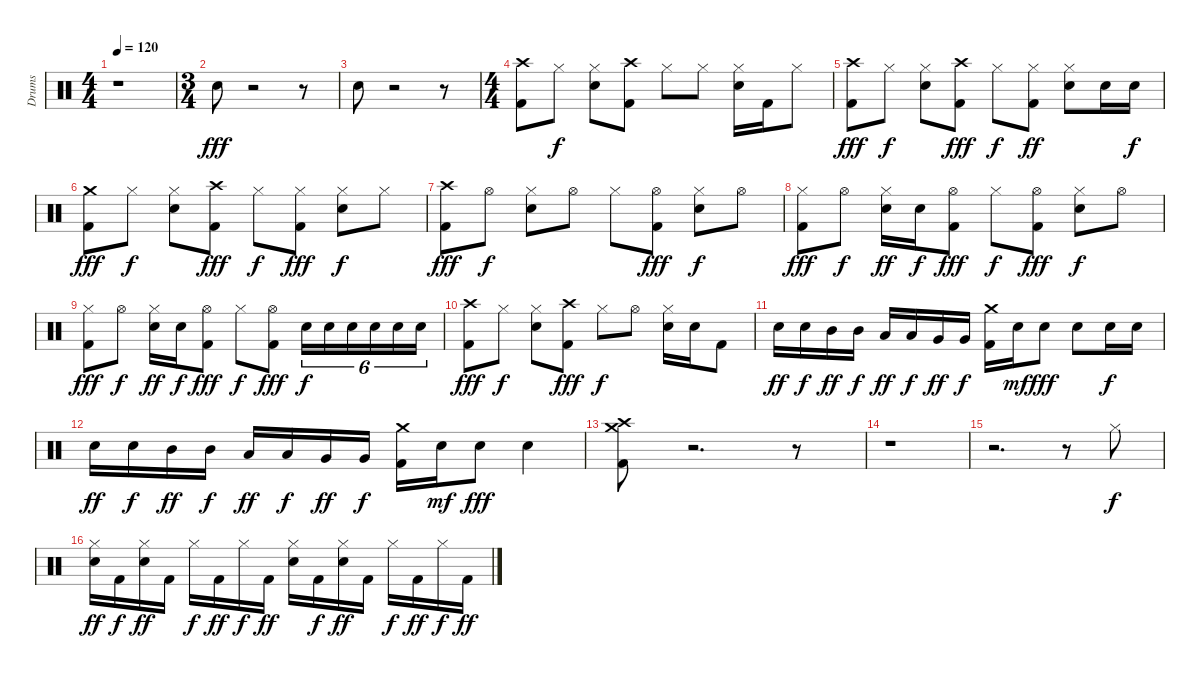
\track ("Drums" "Drums") {instrument percussion}
\staff {score}
\articulation defaults
\ts (4 4)
\tempo 120
\clef neutral
\ks c
r.1{dy fff} |
\ts (3 4)
"Snare (hit) 2".8 r.2 r.8 |
"Snare (hit) 2".8 r.2 r.8 |
\ts (4 4)
("Kick (hit) 2" "Crash high (hit)").8 "Hi-Hat (closed)".8{dy f} ("Snare (hit) 2" "Hi-Hat (closed)").8 ("Kick (hit) 2" "Crash high (hit)").8 "Hi-Hat (closed)".8 "Hi-Hat (closed)".8 ("Snare (hit) 2" "Hi-Hat (closed)").16 "Kick (hit) 2".16 "Hi-Hat (closed)".8 |
("Kick (hit) 2" "Crash high (hit)").8{dy fff} "Hi-Hat (closed)".8{dy f} ("Snare (hit) 2" "Hi-Hat (closed)").8 ("Kick (hit) 2" "Crash high (hit)").8{dy fff} "Hi-Hat (closed)".8{dy f} ("Kick (hit) 2" "Hi-Hat (closed)").8{dy ff} ("Snare (hit) 2" "Hi-Hat (closed)").8 "Snare (hit) 2".16 "Snare (hit) 2".16{dy f} |
("Kick (hit) 2" "Crash medium (hit)").8{dy fff} "Hi-Hat (closed)".8{dy f} ("Snare (hit) 2" "Hi-Hat (closed)").8 ("Kick (hit) 2" "Crash high (hit)").8{dy fff} "Hi-Hat (closed)".8{dy f} ("Kick (hit) 2" "Hi-Hat (closed)").8{dy fff} ("Snare (hit) 2" "Hi-Hat (closed)").8{dy f} "Hi-Hat (closed)".8 |
("Kick (hit) 2" "Crash high (hit)").8{dy fff} "Hi-Hat (open)".8{dy f} ("Snare (hit) 2" "Hi-Hat (closed)").8 "Hi-Hat (open)".8 "Hi-Hat (closed)".8 ("Kick (hit) 2" "Hi-Hat (open)").8{dy fff} ("Snare (hit) 2" "Hi-Hat (closed)").8{dy f} "Hi-Hat (open)".8 |
("Kick (hit) 2" "Hi-Hat (closed)").8{dy fff} "Hi-Hat (open)".8{dy f} ("Snare (hit) 2" "Hi-Hat (closed)").16{dy ff} "Snare (hit) 2".16{dy f} ("Kick (hit) 2" "Hi-Hat (open)").8{dy fff} "Hi-Hat (closed)".8{dy f} ("Kick (hit) 2" "Hi-Hat (open)").8{dy fff} ("Snare (hit) 2" "Hi-Hat (closed)").8{dy f} "Hi-Hat (open)".8 |
("Kick (hit) 2" "Hi-Hat (closed)").8{dy fff} "Hi-Hat (open)".8{dy f} ("Snare (hit) 2" "Hi-Hat (closed)").16{dy ff} "Snare (hit) 2".16{dy f} ("Kick (hit) 2" "Hi-Hat (open)").8{dy fff} "Hi-Hat (closed)".8{dy f} ("Kick (hit) 2" "Hi-Hat (open)").8{dy fff} "Snare (hit) 2".16{tu (6 4) dy f} "Snare (hit) 2".16{tu (6 4)} "Snare (hit) 2".16{tu (6 4)} "Snare (hit) 2".16{tu (6 4)} "Snare (hit) 2".16{tu (6 4)} "Snare (hit) 2".16{tu (6 4)} |
("Kick (hit) 2" "Crash high (hit)").8{dy fff} "Hi-Hat (closed)".8{dy f} ("Snare (hit) 2" "Hi-Hat (closed)").8 ("Kick (hit) 2" "Crash high (hit)").8{dy fff} "Hi-Hat (closed)".8{dy f} "Hi-Hat (open)".8 ("Snare (hit) 2" "Hi-Hat (closed)").16 "Snare (hit) 2".16 "Kick (hit) 2".8 |
"Snare (hit) 2".16{dy ff} "Snare (hit) 2".16{dy f} "Mid Tom (hit)".16{dy ff} "Mid Tom (hit)".16{dy f} "Low Tom (hit)".16{dy ff} "Low Tom (hit)".16{dy f} "Very Low Tom (hit)".16{dy ff} "Very Low Tom (hit)".16{dy f} ("Kick (hit) 2" "Crash medium (hit)").16 "Snare (hit) 2".16{dy mf} "Snare (hit) 2".8{dy fff} "Snare (hit) 2".8 "Snare (hit) 2".16{dy f} "Snare (hit) 2".16 |
"Snare (hit) 2".16{dy ff} "Snare (hit) 2".16{dy f} "Mid Tom (hit)".16{dy ff} "Mid Tom (hit)".16{dy f} "Low Tom (hit)".16{dy ff} "Low Tom (hit)".16{dy f} "Very Low Tom (hit)".16{dy ff} "Very Low Tom (hit)".16{dy f} ("Kick (hit) 2" "Crash medium (hit)").16 "Snare (hit) 2".16{dy mf} "Snare (hit) 2".8{dy fff} "Snare (hit) 2".4 |
("Kick (hit) 2" "Crash high (hit)" "Crash medium (hit)").8 r.2{d} r.8 |
r.1 |
r.2{d} r.8 "Hi-Hat (closed)".8{dy f} |
("Snare (hit) 2" "Hi-Hat (closed)").16{dy ff} "Kick (hit) 2".16{dy f} ("Snare (hit) 2" "Hi-Hat (closed)").16{dy ff} "Kick (hit) 2".16 "Hi-Hat (closed)".16{dy f} "Kick (hit) 2".16{dy ff} "Hi-Hat (closed)".16{dy f} "Kick (hit) 2".16{dy ff} ("Snare (hit) 2" "Hi-Hat (closed)").16 "Kick (hit) 2".16{dy f} ("Snare (hit) 2" "Hi-Hat (closed)").16{dy ff} "Kick (hit) 2".16 "Hi-Hat (closed)".16{dy f} "Kick (hit) 2".16{dy ff} "Hi-Hat (closed)".16{dy f} "Kick (hit) 2".16{dy ff}
